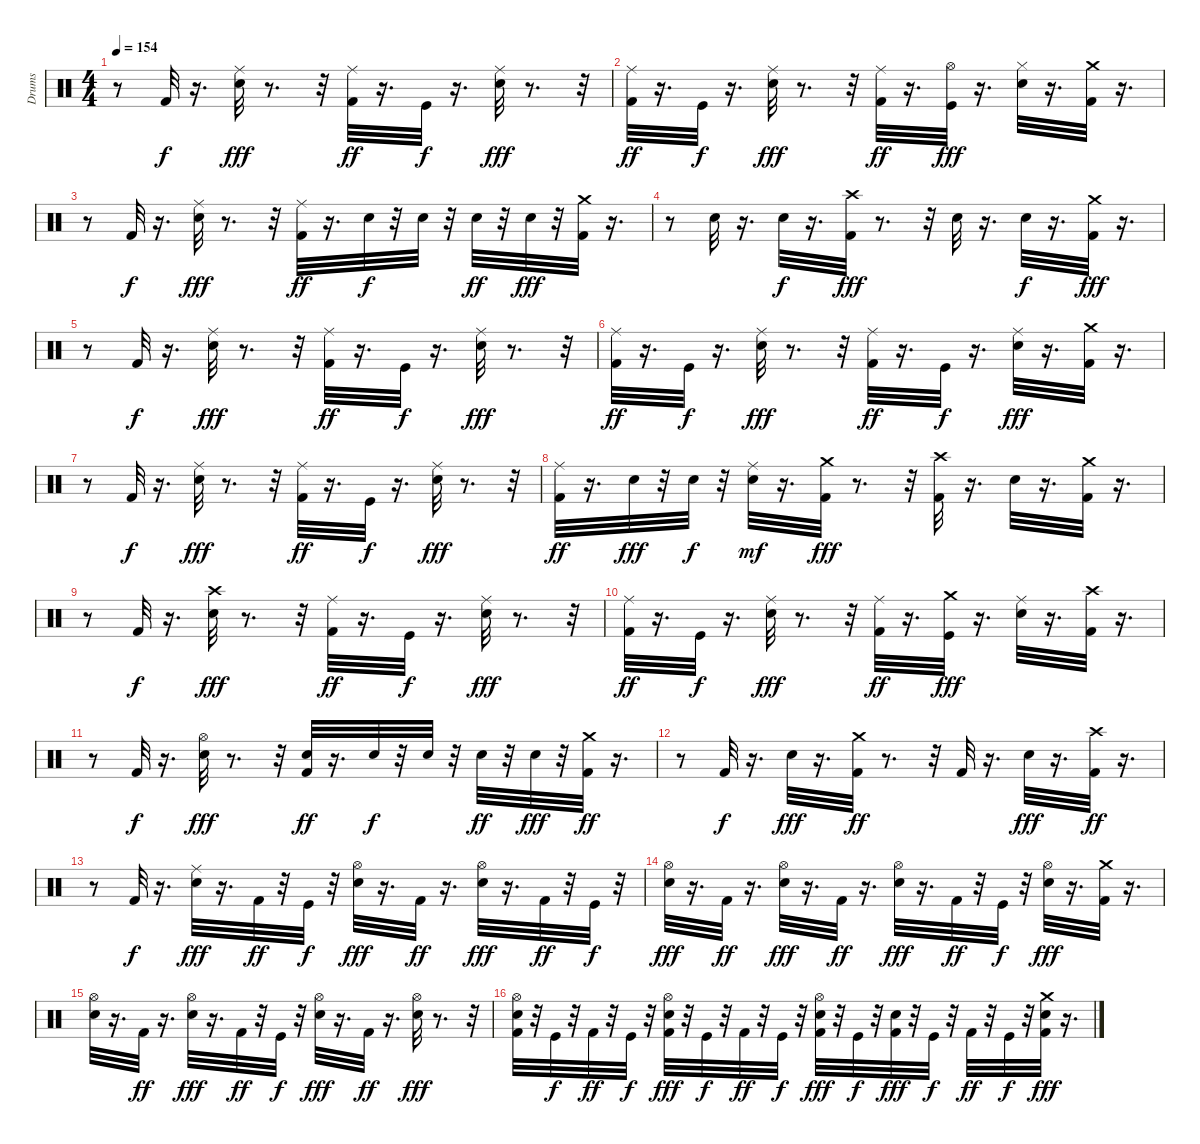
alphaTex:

\track ("Drums" "Drums") {instrument percussion}
\staff {score}
\articulation defaults
\ts (4 4)
\tempo 154
\clef neutral
\ks c
r.8{dy fff} "Kick (hit) 2".32{dy f} r.16{d} ("Snare (hit) 2" "Ride (middle)").32{dy fff} r.8{d} r.32 ("Kick (hit) 2" "Ride (middle)").32{dy ff} r.16{d} "Kick (hit)".32{dy f} r.16{d} ("Snare (hit) 2" "Ride (middle)").32{dy fff} r.8{d} r.32 |
("Kick (hit) 2" "Ride (middle)").32{dy ff} r.16{d} "Kick (hit)".32{dy f} r.16{d} ("Snare (hit) 2" "Ride (middle)").32{dy fff} r.8{d} r.32 ("Kick (hit) 2" "Ride (middle)").32{dy ff} r.16{d} ("Kick (hit)" "Hi-Hat (open)").32{dy fff} r.16{d} ("Snare (hit) 2" "Hi-Hat (closed)").32 r.16{d} ("Kick (hit) 2" "Crash medium (hit)").32 r.16{d} |
r.8 "Kick (hit) 2".32{dy f} r.16{d} ("Snare (hit) 2" "Ride (middle)").32{dy fff} r.8{d} r.32 ("Kick (hit) 2" "Ride (middle)").32{dy ff} r.16{d} "Snare (hit) 2".32{dy f} r.32 "Snare (hit) 2".32 r.32 "Snare (hit) 2".32{dy ff} r.32 "Snare (hit) 2".32{dy fff} r.32 ("Kick (hit) 2" "Crash medium (hit)").32 r.16{d} |
r.8 "Snare (hit) 2".32 r.16{d} "Snare (hit) 2".32{dy f} r.16{d} ("Kick (hit) 2" "Crash high (hit)").32{dy fff} r.8{d} r.32 "Snare (hit) 2".32 r.16{d} "Snare (hit) 2".32{dy f} r.16{d} ("Kick (hit) 2" "Crash medium (hit)").32{dy fff} r.16{d} |
r.8 "Kick (hit) 2".32{dy f} r.16{d} ("Snare (hit) 2" "Ride (middle)").32{dy fff} r.8{d} r.32 ("Kick (hit) 2" "Ride (middle)").32{dy ff} r.16{d} "Kick (hit)".32{dy f} r.16{d} ("Snare (hit) 2" "Ride (middle)").32{dy fff} r.8{d} r.32 |
("Kick (hit) 2" "Ride (middle)").32{dy ff} r.16{d} "Kick (hit)".32{dy f} r.16{d} ("Snare (hit) 2" "Ride (middle)").32{dy fff} r.8{d} r.32 ("Ride (middle)" "Kick (hit) 2").32{dy ff} r.16{d} "Kick (hit)".32{dy f} r.16{d} ("Snare (hit) 2" "Ride (middle)").32{dy fff} r.16{d} ("Kick (hit) 2" "Crash medium (hit)").32 r.16{d} |
r.8 "Kick (hit) 2".32{dy f} r.16{d} ("Snare (hit) 2" "Ride (middle)").32{dy fff} r.8{d} r.32 ("Kick (hit) 2" "Ride (middle)").32{dy ff} r.16{d} "Kick (hit)".32{dy f} r.16{d} ("Snare (hit) 2" "Ride (middle)").32{dy fff} r.8{d} r.32 |
("Kick (hit) 2" "Ride (middle)").32{dy ff} r.16{d} "Snare (hit) 2".32{dy fff} r.32 "Snare (hit) 2".32{dy f} r.32 ("Snare (hit) 2" "Ride (middle)").32{dy mf} r.16{d} ("Kick (hit) 2" "Crash medium (hit)").32{dy fff} r.8{d} r.32 ("Kick (hit) 2" "Crash high (hit)").32 r.16{d} "Snare (hit) 2".32 r.16{d} ("Kick (hit) 2" "Crash medium (hit)").32 r.16{d} |
r.8 "Kick (hit) 2".32{dy f} r.16{d} ("Snare (hit) 2" "Crash high (hit)").32{dy fff} r.8{d} r.32 ("Kick (hit) 2" "Ride (middle)").32{dy ff} r.16{d} "Kick (hit)".32{dy f} r.16{d} ("Snare (hit) 2" "Ride (middle)").32{dy fff} r.8{d} r.32 |
("Kick (hit) 2" "Ride (middle)").32{dy ff} r.16{d} "Kick (hit)".32{dy f} r.16{d} ("Snare (hit) 2" "Ride (middle)").32{dy fff} r.8{d} r.32 ("Kick (hit) 2" "Ride (middle)").32{dy ff} r.16{d} ("Kick (hit)" "Crash medium (hit)").32{dy fff} r.16{d} ("Snare (hit) 2" "Ride (middle)").32 r.16{d} ("Kick (hit) 2" "Crash high (hit)").32 r.16{d} |
r.8 "Kick (hit) 2".32{dy f} r.16{d} ("Snare (hit) 2" "Hi-Hat (open)").32{dy fff} r.8{d} r.32 ("Snare (hit) 2" "Kick (hit) 2").32{dy ff} r.16{d} "Snare (hit) 2".32{dy f} r.32 "Snare (hit) 2".32 r.32 "Snare (hit) 2".32{dy ff} r.32 "Snare (hit) 2".32{dy fff} r.32 ("Crash medium (hit)" "Kick (hit) 2").32{dy ff} r.16{d} |
r.8 "Kick (hit) 2".32{dy f} r.16{d} "Snare (hit) 2".32{dy fff} r.16{d} ("Crash medium (hit)" "Kick (hit) 2").32{dy ff} r.8{d} r.32 "Kick (hit) 2".32 r.16{d} "Snare (hit) 2".32{dy fff} r.16{d} ("Crash high (hit)" "Kick (hit) 2").32{dy ff} r.16{d} |
r.8 "Kick (hit) 2".32{dy f} r.16{d} ("Snare (hit) 2" "Ride (middle)").32{dy fff} r.16{d} "Kick (hit) 2".32{dy ff} r.32 "Kick (hit)".32{dy f} r.32 ("Snare (hit) 2" "Hi-Hat (open)").32{dy fff} r.16{d} "Kick (hit) 2".32{dy ff} r.16{d} ("Snare (hit) 2" "Hi-Hat (open)").32{dy fff} r.16{d} "Kick (hit) 2".32{dy ff} r.32 "Kick (hit)".32{dy f} r.32 |
("Snare (hit) 2" "Hi-Hat (open)").32{dy fff} r.16{d} "Kick (hit) 2".32{dy ff} r.16{d} ("Snare (hit) 2" "Hi-Hat (open)").32{dy fff} r.16{d} "Kick (hit) 2".32{dy ff} r.16{d} ("Snare (hit) 2" "Hi-Hat (open)").32{dy fff} r.16{d} "Kick (hit) 2".32{dy ff} r.32 "Kick (hit)".32{dy f} r.32 ("Snare (hit) 2" "Hi-Hat (open)").32{dy fff} r.16{d} ("Kick (hit) 2" "Crash medium (hit)").32 r.16{d} |
("Snare (hit) 2" "Hi-Hat (open)").32 r.16{d} "Kick (hit) 2".32{dy ff} r.16{d} ("Snare (hit) 2" "Hi-Hat (open)").32{dy fff} r.16{d} "Kick (hit) 2".32{dy ff} r.32 "Kick (hit)".32{dy f} r.32 ("Snare (hit) 2" "Hi-Hat (open)").32{dy fff} r.16{d} "Kick (hit) 2".32{dy ff} r.16{d} ("Snare (hit) 2" "Hi-Hat (open)").32{dy fff} r.8{d} r.32 |
("Kick (hit) 2" "Snare (hit) 2" "Hi-Hat (open)").32 r.32 "Kick (hit)".32{dy f} r.32 "Kick (hit) 2".32{dy ff} r.32 "Kick (hit)".32{dy f} r.32 ("Kick (hit) 2" "Snare (hit) 2" "Hi-Hat (open)").32{dy fff} r.32 "Kick (hit)".32{dy f} r.32 "Kick (hit) 2".32{dy ff} r.32 "Kick (hit)".32{dy f} r.32 ("Kick (hit) 2" "Snare (hit) 2" "Hi-Hat (open)").32{dy fff} r.32 "Kick (hit)".32{dy f} r.32 ("Kick (hit) 2" "Snare (hit) 2").32{dy fff} r.32 "Kick (hit)".32{dy f} r.32 "Kick (hit) 2".32{dy ff} r.32 "Kick (hit)".32{dy f} r.32 ("Kick (hit) 2" "Snare (hit) 2" "Crash medium (hit)").32{dy fff} r.16{d}
